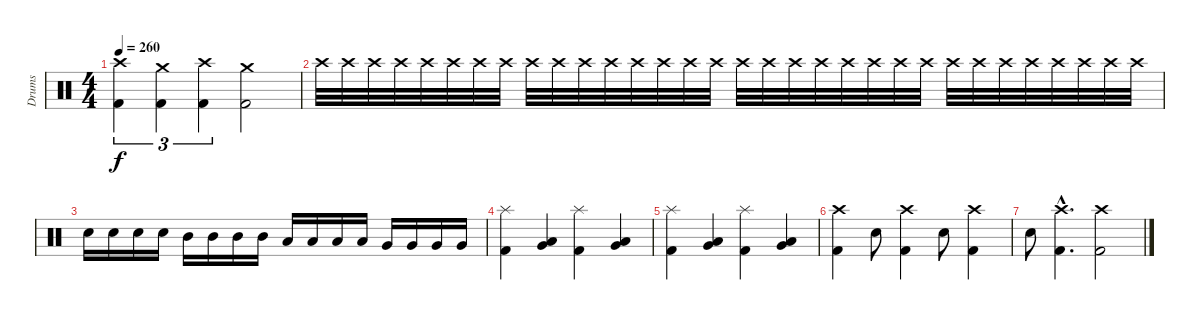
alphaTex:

\track ("Drums" "Drums") {instrument percussion}
\staff {score}
\articulation defaults
\ts (4 4)
\tempo 260
\clef neutral
\ks c
("Crash high (hit)" "Kick (hit) 2").4{tu (3 2) dy f} ("Crash medium (hit)" "Kick (hit) 2").4{tu (3 2)} ("Crash high (hit)" "Kick (hit) 2").4{tu (3 2)} ("Crash medium (hit)" "Kick (hit) 2").2 |
"Crash high (hit)".32 "Crash high (hit)".32 "Crash high (hit)".32 "Crash high (hit)".32 "Crash high (hit)".32 "Crash high (hit)".32 "Crash high (hit)".32 "Crash high (hit)".32 "Crash high (hit)".32 "Crash high (hit)".32 "Crash high (hit)".32 "Crash high (hit)".32 "Crash high (hit)".32 "Crash high (hit)".32 "Crash high (hit)".32 "Crash high (hit)".32 "Crash high (hit)".32 "Crash high (hit)".32 "Crash high (hit)".32 "Crash high (hit)".32 "Crash high (hit)".32 "Crash high (hit)".32 "Crash high (hit)".32 "Crash high (hit)".32 "Crash high (hit)".32 "Crash high (hit)".32 "Crash high (hit)".32 "Crash high (hit)".32 "Crash high (hit)".32 "Crash high (hit)".32 "Crash high (hit)".32 "Crash high (hit)".32 |
"Electric Snare (hit)".16 "Electric Snare (hit)".16 "Electric Snare (hit)".16 "Electric Snare (hit)".16 "Mid Tom (hit)".16 "Mid Tom (hit)".16 "Mid Tom (hit)".16 "Mid Tom (hit)".16 "Low Tom (hit)".16 "Low Tom (hit)".16 "Low Tom (hit)".16 "Low Tom (hit)".16 "Very Low Tom (hit)".16 "Very Low Tom (hit)".16 "Very Low Tom (hit)".16 "Very Low Tom (hit)".16 |
("Splash (hit)" "Kick (hit) 2").4 ("Very Low Tom (hit)" "Low Floor Tom (hit)").4 ("Splash (hit)" "Kick (hit) 2").4 ("Very Low Tom (hit)" "Low Floor Tom (hit)").4 |
("Splash (hit)" "Kick (hit) 2").4 ("Very Low Tom (hit)" "Low Floor Tom (hit)").4 ("Splash (hit)" "Kick (hit) 2").4 ("Very Low Tom (hit)" "Low Floor Tom (hit)").4 |
("Crash high (hit)" "Kick (hit) 2").4 "Electric Snare (hit)".8 ("Crash high (hit)" "Kick (hit) 2").4 "Electric Snare (hit)".8 ("Crash high (hit)" "Kick (hit) 2").4 |
"Electric Snare (hit)".8 ("Crash high (hit)"{hac} "Kick (hit) 2"{hac}).4{d} ("Crash high (hit)" "Kick (hit) 2").2
